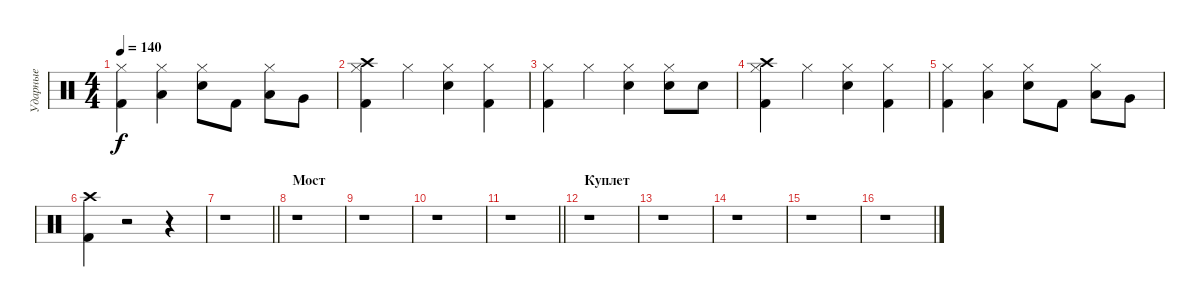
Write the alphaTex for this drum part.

\track ("Ударные" "Ударные") {instrument percussion}
\staff {score}
\articulation defaults
\ts (4 4)
\tempo 140
\clef neutral
\ks c
("Hi-Hat (closed)" "Kick (hit) 2").4{dy f} ("Low Floor Tom (hit)" "Hi-Hat (closed)").4 ("Snare (hit) 2" "Hi-Hat (closed)").8 "Kick (hit) 2".8 ("Low Tom (hit)" "Hi-Hat (closed)").8 "Very Low Tom (hit)".8 |
("Hi-Hat (closed)" "Crash high (hit)" "Kick (hit) 2").4 "Hi-Hat (closed)".4 ("Hi-Hat (closed)" "Snare (hit) 2").4 ("Hi-Hat (closed)" "Kick (hit) 2").4 |
("Hi-Hat (closed)" "Kick (hit) 2").4 "Hi-Hat (closed)".4 ("Snare (hit) 2" "Hi-Hat (closed)").4 ("Snare (hit) 2" "Hi-Hat (closed)").8 "Snare (hit) 2".8 |
("Hi-Hat (closed)" "Crash high (hit)" "Kick (hit) 2").4 "Hi-Hat (closed)".4 ("Hi-Hat (closed)" "Snare (hit) 2").4 ("Hi-Hat (closed)" "Kick (hit) 2").4 |
("Hi-Hat (closed)" "Kick (hit) 2").4 ("Low Floor Tom (hit)" "Hi-Hat (closed)").4 ("Snare (hit) 2" "Hi-Hat (closed)").8 "Kick (hit) 2".8 ("Low Tom (hit)" "Hi-Hat (closed)").8 "Very Low Tom (hit)".8 |
("Crash high (hit)" "Kick (hit) 2").4 r.2 r.4 |
\barLineRight lightlight
r.1 |
\section ("" "Мост")
r.1 |
r.1 |
r.1 |
\barLineRight lightlight
r.1 |
\section ("" "Куплет")
r.1 |
r.1 |
r.1 |
r.1 |
r.1
